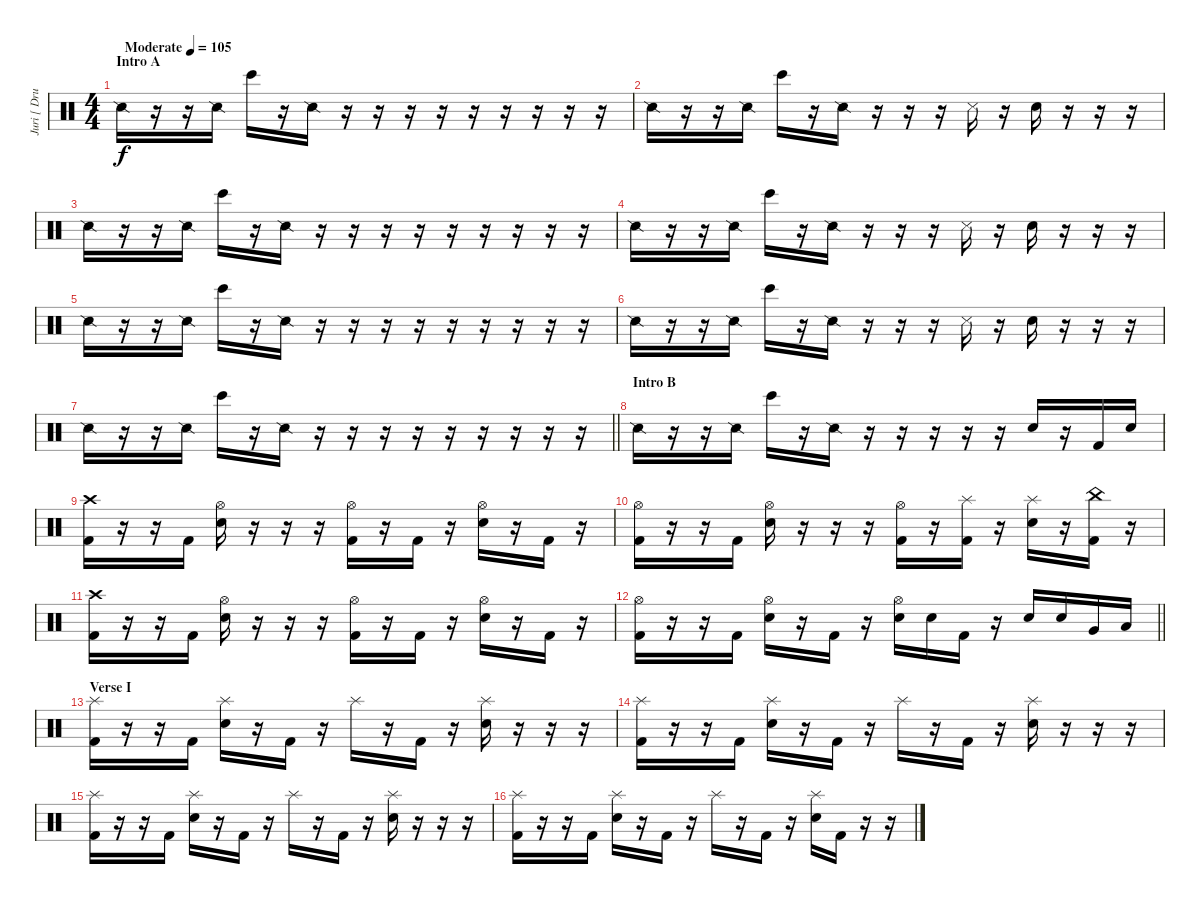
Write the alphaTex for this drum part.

\track ("Juri [ Drums]" "Juri [ Dru") {instrument percussion}
\staff {score}
\articulation defaults
\ts (4 4)
\section ("" "Intro A")
\tempo (105 "Moderate")
\clef neutral
\ks c "Snare (side stick) 2".16{dy f}
r.16 r.16 "Snare (side stick) 2".16 "Bongo High (hit)".16 r.16 "Snare (side stick) 2".16 r.16 r.16 r.16 r.16 r.16 r.16 r.16 r.16 r.16 |
"Snare (side stick) 2".16 r.16 r.16 "Snare (side stick) 2".16 "Bongo High (hit)".16 r.16 "Snare (side stick) 2".16 r.16 r.16 r.16 "Snare (side stick) 3".16 r.16 "Hand Clap (hit)".16 r.16 r.16 r.16 |
"Snare (side stick) 2".16 r.16 r.16 "Snare (side stick) 2".16 "Bongo High (hit)".16 r.16 "Snare (side stick) 2".16 r.16 r.16 r.16 r.16 r.16 r.16 r.16 r.16 r.16 |
"Snare (side stick) 2".16 r.16 r.16 "Snare (side stick) 2".16 "Bongo High (hit)".16 r.16 "Snare (side stick) 2".16 r.16 r.16 r.16 "Snare (side stick) 3".16 r.16 "Hand Clap (hit)".16 r.16 r.16 r.16 |
"Snare (side stick) 2".16 r.16 r.16 "Snare (side stick) 2".16 "Bongo High (hit)".16 r.16 "Snare (side stick) 2".16 r.16 r.16 r.16 r.16 r.16 r.16 r.16 r.16 r.16 |
"Snare (side stick) 2".16 r.16 r.16 "Snare (side stick) 2".16 "Bongo High (hit)".16 r.16 "Snare (side stick) 2".16 r.16 r.16 r.16 "Snare (side stick) 3".16 r.16 "Hand Clap (hit)".16 r.16 r.16 r.16 |
\barLineRight lightlight "Snare (side stick) 2".16
r.16 r.16 "Snare (side stick) 2".16 "Bongo High (hit)".16 r.16 "Snare (side stick) 2".16 r.16 r.16 r.16 r.16 r.16 r.16 r.16 r.16 r.16 |
\section ("" "Intro B")
"Snare (side stick) 2".16 r.16 r.16 "Snare (side stick) 2".16 "Bongo High (hit)".16 r.16 "Snare (side stick) 2".16 r.16 r.16 r.16 r.16 r.16 "Electric Snare (hit)".16 r.16 "Kick (hit) 2".16 "Electric Snare (hit)".16 |
("Crash high (hit)" "Kick (hit) 2").16 r.16 r.16 "Kick (hit) 2".16 ("Hi-Hat (open)" "Electric Snare (hit)").16 r.16 r.16 r.16 ("Hi-Hat (open)" "Kick (hit) 2").16 r.16 "Kick (hit) 2".16 r.16 ("Hi-Hat (open)" "Electric Snare (hit)").16 r.16 "Kick (hit) 2".16 r.16 |
("Hi-Hat (open)" "Kick (hit) 2").16 r.16 r.16 "Kick (hit) 2".16 ("Hi-Hat (open)" "Electric Snare (hit)").16 r.16 r.16 r.16 ("Hi-Hat (open)" "Kick (hit) 2").16 r.16 ("Splash (hit)" "Kick (hit) 2").16 r.16 ("Splash (hit)" "Electric Snare (hit)").16 r.16 ("China (hit)" "Kick (hit) 2").16 r.16 |
("Crash high (hit)" "Kick (hit) 2").16 r.16 r.16 "Kick (hit) 2".16 ("Hi-Hat (open)" "Electric Snare (hit)").16 r.16 r.16 r.16 ("Hi-Hat (open)" "Kick (hit) 2").16 r.16 "Kick (hit) 2".16 r.16 ("Hi-Hat (open)" "Electric Snare (hit)").16 r.16 "Kick (hit) 2".16 r.16 |
\barLineRight lightlight
("Hi-Hat (open)" "Kick (hit) 2").16 r.16 r.16 "Kick (hit) 2".16 ("Hi-Hat (open)" "Electric Snare (hit)").16 r.16 "Kick (hit) 2".16 r.16 ("Hi-Hat (open)" "Electric Snare (hit)").16 "Electric Snare (hit)".16 "Kick (hit) 2".16 r.16 "Electric Snare (hit)".16 "Electric Snare (hit)".16 "Very Low Tom (hit)".16 "Low Floor Tom (hit)".16 |
\section ("" "Verse I")
("Splash (hit)" "Kick (hit) 2").16 r.16 r.16 "Kick (hit) 2".16 ("Splash (hit)" "Electric Snare (hit)").16 r.16 "Kick (hit) 2".16 r.16 "Splash (hit)".16 r.16 "Kick (hit) 2".16 r.16 ("Splash (hit)" "Electric Snare (hit)").16 r.16 r.16 r.16 |
("Splash (hit)" "Kick (hit) 2").16 r.16 r.16 "Kick (hit) 2".16 ("Splash (hit)" "Electric Snare (hit)").16 r.16 "Kick (hit) 2".16 r.16 "Splash (hit)".16 r.16 "Kick (hit) 2".16 r.16 ("Splash (hit)" "Electric Snare (hit)").16 r.16 r.16 r.16 |
("Splash (hit)" "Kick (hit) 2").16 r.16 r.16 "Kick (hit) 2".16 ("Splash (hit)" "Electric Snare (hit)").16 r.16 "Kick (hit) 2".16 r.16 "Splash (hit)".16 r.16 "Kick (hit) 2".16 r.16 ("Splash (hit)" "Electric Snare (hit)").16 r.16 r.16 r.16 |
("Splash (hit)" "Kick (hit) 2").16 r.16 r.16 "Kick (hit) 2".16 ("Splash (hit)" "Electric Snare (hit)").16 r.16 "Kick (hit) 2".16 r.16 "Splash (hit)".16 r.16 "Kick (hit) 2".16 r.16 ("Splash (hit)" "Electric Snare (hit)").16 "Kick (hit) 2".16 r.16 r.16
